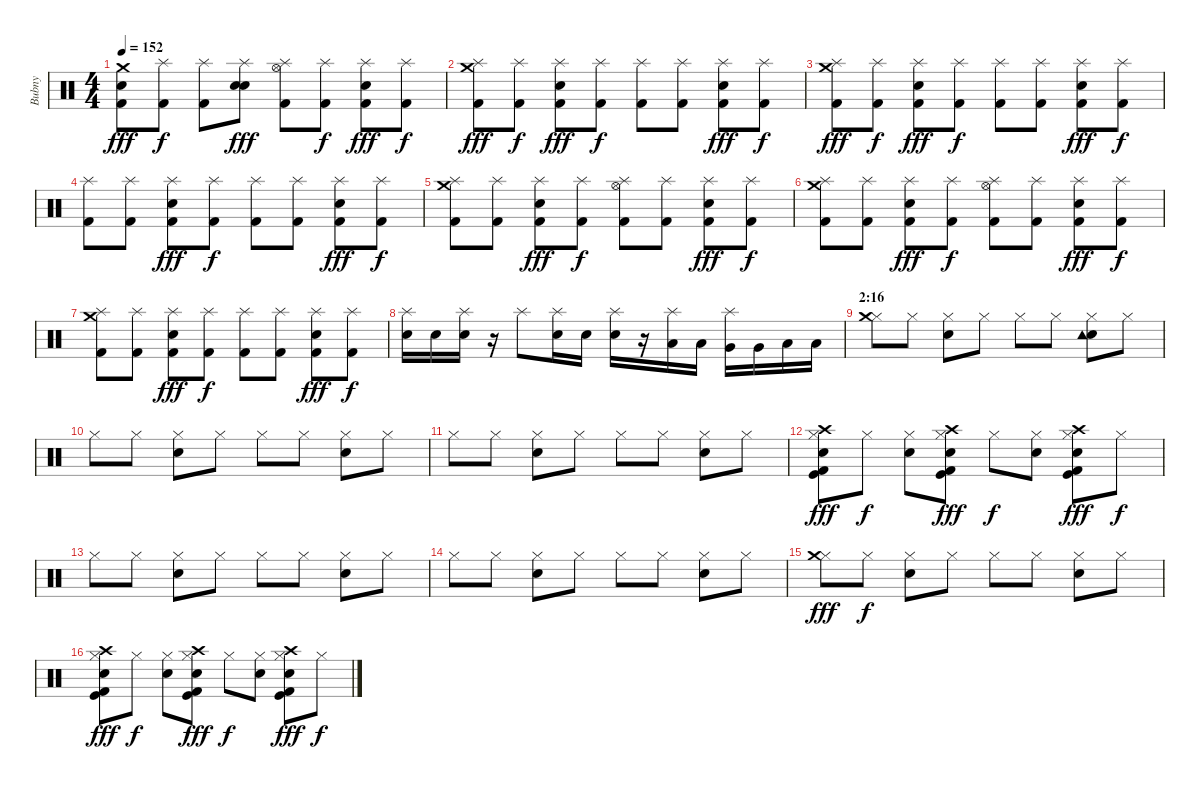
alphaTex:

\track ("Bubny" "Bubny") {instrument percussion}
\staff {score}
\articulation defaults
\ts (4 4)
\tempo 152
\clef neutral
\ks c
("Kick (hit) 2" "Electric Snare (hit)" "Crash medium (hit)").8{dy fff} ("Splash (hit)" "Kick (hit) 2").8{dy f} ("Splash (hit)" "Kick (hit) 2").8 ("Splash (hit)" "Electric Snare (hit)" "Snare (hit) 2").8{dy fff} ("Splash (hit)" "Kick (hit) 2" "Hi-Hat (open)").8 ("Splash (hit)" "Kick (hit) 2").8{dy f} ("Splash (hit)" "Kick (hit) 2" "Snare (hit) 2").8{dy fff} ("Splash (hit)" "Kick (hit) 2").8{dy f} |
("Splash (hit)" "Kick (hit) 2" "Crash medium (hit)").8{dy fff} ("Splash (hit)" "Kick (hit) 2").8{dy f} ("Splash (hit)" "Kick (hit) 2" "Snare (hit) 2").8{dy fff} ("Splash (hit)" "Kick (hit) 2").8{dy f} ("Splash (hit)" "Kick (hit) 2").8 ("Splash (hit)" "Kick (hit) 2").8 ("Splash (hit)" "Kick (hit) 2" "Snare (hit) 2").8{dy fff} ("Splash (hit)" "Kick (hit) 2").8{dy f} |
("Splash (hit)" "Kick (hit) 2" "Crash medium (hit)").8{dy fff} ("Splash (hit)" "Kick (hit) 2").8{dy f} ("Splash (hit)" "Kick (hit) 2" "Snare (hit) 2").8{dy fff} ("Splash (hit)" "Kick (hit) 2").8{dy f} ("Splash (hit)" "Kick (hit) 2").8 ("Splash (hit)" "Kick (hit) 2").8 ("Splash (hit)" "Kick (hit) 2" "Snare (hit) 2").8{dy fff} ("Splash (hit)" "Kick (hit) 2").8{dy f} |
("Splash (hit)" "Kick (hit) 2").8 ("Splash (hit)" "Kick (hit) 2").8 ("Splash (hit)" "Kick (hit) 2" "Snare (hit) 2").8{dy fff} ("Splash (hit)" "Kick (hit) 2").8{dy f} ("Splash (hit)" "Kick (hit) 2").8 ("Splash (hit)" "Kick (hit) 2").8 ("Splash (hit)" "Kick (hit) 2" "Snare (hit) 2").8{dy fff} ("Splash (hit)" "Kick (hit) 2").8{dy f} |
("Splash (hit)" "Kick (hit) 2" "Crash medium (hit)").8 ("Splash (hit)" "Kick (hit) 2").8 ("Splash (hit)" "Kick (hit) 2" "Snare (hit) 2").8{dy fff} ("Splash (hit)" "Kick (hit) 2").8{dy f} ("Splash (hit)" "Kick (hit) 2" "Hi-Hat (open)").8 ("Splash (hit)" "Kick (hit) 2").8 ("Splash (hit)" "Kick (hit) 2" "Snare (hit) 2").8{dy fff} ("Splash (hit)" "Kick (hit) 2").8{dy f} |
("Splash (hit)" "Kick (hit) 2" "Crash medium (hit)").8 ("Splash (hit)" "Kick (hit) 2").8 ("Splash (hit)" "Kick (hit) 2" "Snare (hit) 2").8{dy fff} ("Splash (hit)" "Kick (hit) 2").8{dy f} ("Splash (hit)" "Kick (hit) 2" "Hi-Hat (open)").8 ("Splash (hit)" "Kick (hit) 2").8 ("Splash (hit)" "Kick (hit) 2" "Snare (hit) 2").8{dy fff} ("Splash (hit)" "Kick (hit) 2").8{dy f} |
("Splash (hit)" "Kick (hit) 2" "Crash medium (hit)").8 ("Splash (hit)" "Kick (hit) 2").8 ("Splash (hit)" "Kick (hit) 2" "Snare (hit) 2").8{dy fff} ("Splash (hit)" "Kick (hit) 2").8{dy f} ("Splash (hit)" "Kick (hit) 2").8 ("Splash (hit)" "Kick (hit) 2").8 ("Splash (hit)" "Kick (hit) 2" "Snare (hit) 2").8{dy fff} ("Splash (hit)" "Kick (hit) 2").8{dy f} |
("Splash (hit)" "Snare (hit) 2").16 "Snare (hit) 2".16 ("Splash (hit)" "Snare (hit) 2").16 r.16 "Splash (hit)".8 ("Splash (hit)" "Snare (hit) 2").16 "Snare (hit) 2".16 ("Splash (hit)" "Snare (hit) 2").16 r.16 ("Splash (hit)" "Low Tom (hit)").16 "Low Tom (hit)".16 ("Splash (hit)" "Very Low Tom (hit)").16 "Very Low Tom (hit)".16 "Low Floor Tom (hit)".16 "Low Floor Tom (hit)".16 |
\section ("" "2:16")
("Hi-Hat (closed)" "Crash medium (hit)").8 "Hi-Hat (closed)".8 ("Hi-Hat (closed)" "Snare (hit) 2").8 "Hi-Hat (closed)".8 "Hi-Hat (closed)".8 "Hi-Hat (closed)".8 ("Hi-Hat (closed)" "Snare (hit) 2" "Tambourine (hit)").8 "Hi-Hat (closed)".8 |
"Hi-Hat (closed)".8 "Hi-Hat (closed)".8 ("Hi-Hat (closed)" "Snare (hit) 2").8 "Hi-Hat (closed)".8 "Hi-Hat (closed)".8 "Hi-Hat (closed)".8 ("Hi-Hat (closed)" "Snare (hit) 2").8 "Hi-Hat (closed)".8 |
"Hi-Hat (closed)".8 "Hi-Hat (closed)".8 ("Hi-Hat (closed)" "Snare (hit) 2").8 "Hi-Hat (closed)".8 "Hi-Hat (closed)".8 "Hi-Hat (closed)".8 ("Hi-Hat (closed)" "Snare (hit) 2").8 "Hi-Hat (closed)".8 |
("Hi-Hat (closed)" "Crash high (hit)" "Kick (hit) 2" "Kick (hit)" "Snare (hit) 2").8{dy fff} "Hi-Hat (closed)".8{dy f} ("Hi-Hat (closed)" "Snare (hit) 2").8 ("Hi-Hat (closed)" "Crash high (hit)" "Kick (hit) 2" "Kick (hit)" "Snare (hit) 2").8{dy fff} "Hi-Hat (closed)".8{dy f} ("Hi-Hat (closed)" "Snare (hit) 2").8 ("Hi-Hat (closed)" "Crash high (hit)" "Kick (hit) 2" "Kick (hit)" "Snare (hit) 2").8{dy fff} "Hi-Hat (closed)".8{dy f} |
"Hi-Hat (closed)".8 "Hi-Hat (closed)".8 ("Hi-Hat (closed)" "Snare (hit) 2").8 "Hi-Hat (closed)".8 "Hi-Hat (closed)".8 "Hi-Hat (closed)".8 ("Hi-Hat (closed)" "Snare (hit) 2").8 "Hi-Hat (closed)".8 |
"Hi-Hat (closed)".8 "Hi-Hat (closed)".8 ("Hi-Hat (closed)" "Snare (hit) 2").8 "Hi-Hat (closed)".8 "Hi-Hat (closed)".8 "Hi-Hat (closed)".8 ("Hi-Hat (closed)" "Snare (hit) 2").8 "Hi-Hat (closed)".8 |
("Hi-Hat (closed)" "Crash medium (hit)").8{dy fff} "Hi-Hat (closed)".8{dy f} ("Hi-Hat (closed)" "Snare (hit) 2").8 "Hi-Hat (closed)".8 "Hi-Hat (closed)".8 "Hi-Hat (closed)".8 ("Hi-Hat (closed)" "Snare (hit) 2").8 "Hi-Hat (closed)".8 |
("Hi-Hat (closed)" "Crash high (hit)" "Kick (hit) 2" "Kick (hit)" "Snare (hit) 2").8{dy fff} "Hi-Hat (closed)".8{dy f} ("Hi-Hat (closed)" "Snare (hit) 2").8 ("Hi-Hat (closed)" "Crash high (hit)" "Kick (hit) 2" "Kick (hit)" "Snare (hit) 2").8{dy fff} "Hi-Hat (closed)".8{dy f} ("Hi-Hat (closed)" "Snare (hit) 2").8 ("Hi-Hat (closed)" "Crash high (hit)" "Kick (hit) 2" "Kick (hit)" "Snare (hit) 2").8{dy fff} "Hi-Hat (closed)".8{dy f}
